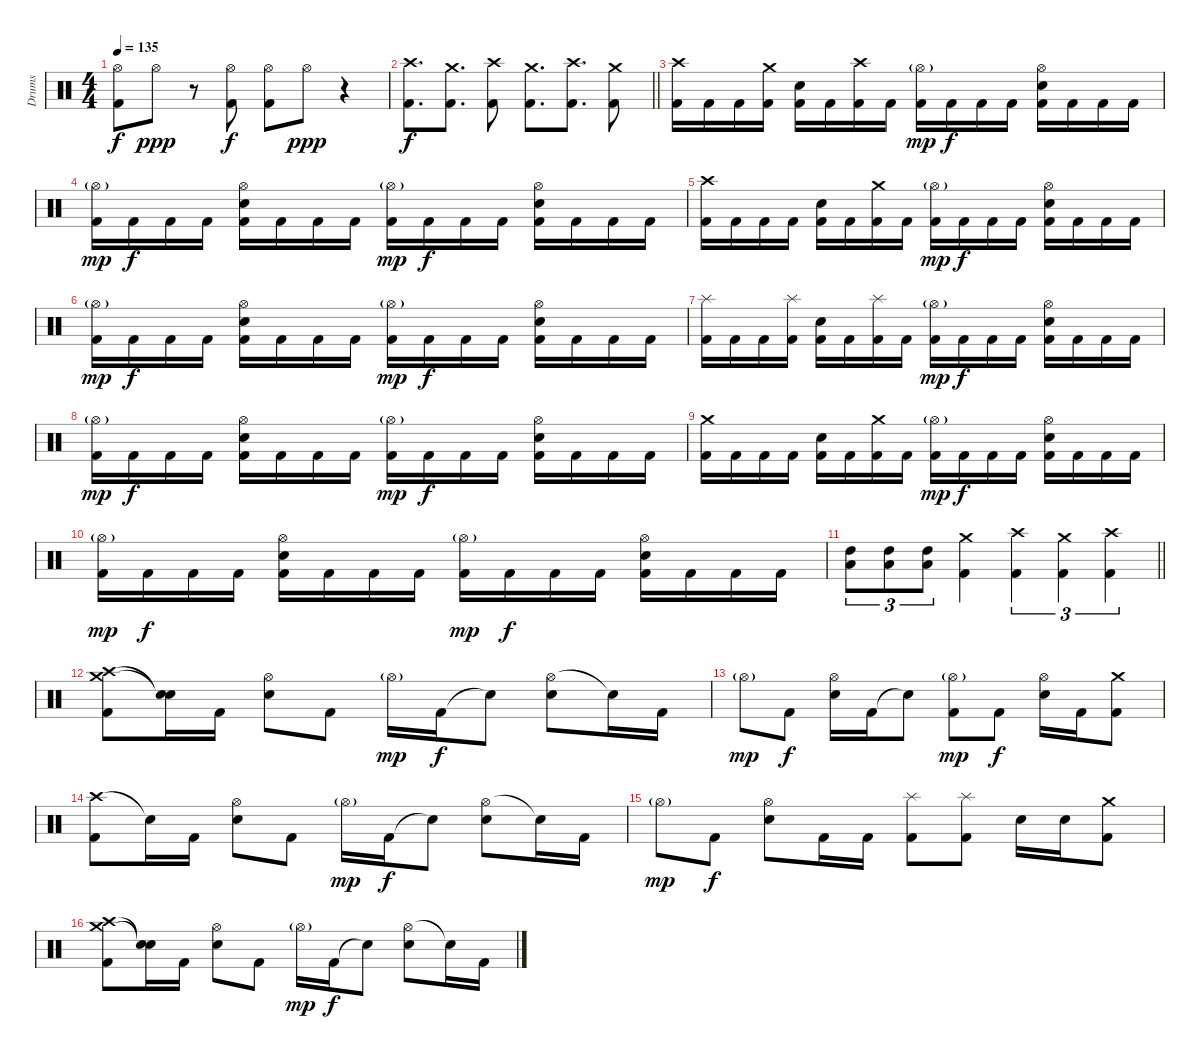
\track ("Drums" "Drums") {instrument percussion}
\staff {score}
\articulation defaults
\ts (4 4)
\tempo 135
\clef neutral
\ks c
("Hi-Hat (open)" "Kick (hit) 2").8{dy f} "Hi-Hat (open)".8{dy ppp} r.8 ("Hi-Hat (open)" "Kick (hit) 2").8{dy f} ("Hi-Hat (open)" "Kick (hit) 2").8 "Hi-Hat (open)".8{dy ppp} r.4 |
\barLineRight lightlight
("Crash high (hit)" "Kick (hit) 2").8{d dy f} ("Crash medium (hit)" "Kick (hit) 2").8{d} ("Crash high (hit)" "Kick (hit) 2").8 ("Crash medium (hit)" "Kick (hit) 2").8{d} ("Crash high (hit)" "Kick (hit) 2").8{d} ("Crash medium (hit)" "Kick (hit) 2").8 |
("Crash high (hit)" "Kick (hit) 2").16 "Kick (hit) 2".16 "Kick (hit) 2".16 ("Crash medium (hit)" "Kick (hit) 2").16 ("Electric Snare (hit)" "Kick (hit) 2").16 "Kick (hit) 2".16 ("Crash high (hit)" "Kick (hit) 2").16 "Kick (hit) 2".16 ("Hi-Hat (open)"{g} "Kick (hit) 2").16{dy mp} "Kick (hit) 2".16{dy f} "Kick (hit) 2".16 "Kick (hit) 2".16 ("Hi-Hat (open)" "Electric Snare (hit)" "Kick (hit) 2").16 "Kick (hit) 2".16 "Kick (hit) 2".16 "Kick (hit) 2".16 |
("Hi-Hat (open)"{g} "Kick (hit) 2").16{dy mp} "Kick (hit) 2".16{dy f} "Kick (hit) 2".16 "Kick (hit) 2".16 ("Hi-Hat (open)" "Electric Snare (hit)" "Kick (hit) 2").16 "Kick (hit) 2".16 "Kick (hit) 2".16 "Kick (hit) 2".16 ("Hi-Hat (open)"{g} "Kick (hit) 2").16{dy mp} "Kick (hit) 2".16{dy f} "Kick (hit) 2".16 "Kick (hit) 2".16 ("Hi-Hat (open)" "Electric Snare (hit)" "Kick (hit) 2").16 "Kick (hit) 2".16 "Kick (hit) 2".16 "Kick (hit) 2".16 |
("Crash high (hit)" "Kick (hit) 2").16 "Kick (hit) 2".16 "Kick (hit) 2".16 "Kick (hit) 2".16 ("Electric Snare (hit)" "Kick (hit) 2").16 "Kick (hit) 2".16 ("Crash medium (hit)" "Kick (hit) 2").16 "Kick (hit) 2".16 ("Hi-Hat (open)"{g} "Kick (hit) 2").16{dy mp} "Kick (hit) 2".16{dy f} "Kick (hit) 2".16 "Kick (hit) 2".16 ("Hi-Hat (open)" "Electric Snare (hit)" "Kick (hit) 2").16 "Kick (hit) 2".16 "Kick (hit) 2".16 "Kick (hit) 2".16 |
("Hi-Hat (open)"{g} "Kick (hit) 2").16{dy mp} "Kick (hit) 2".16{dy f} "Kick (hit) 2".16 "Kick (hit) 2".16 ("Hi-Hat (open)" "Electric Snare (hit)" "Kick (hit) 2").16 "Kick (hit) 2".16 "Kick (hit) 2".16 "Kick (hit) 2".16 ("Hi-Hat (open)"{g} "Kick (hit) 2").16{dy mp} "Kick (hit) 2".16{dy f} "Kick (hit) 2".16 "Kick (hit) 2".16 ("Hi-Hat (open)" "Electric Snare (hit)" "Kick (hit) 2").16 "Kick (hit) 2".16 "Kick (hit) 2".16 "Kick (hit) 2".16 |
("Splash (hit)" "Kick (hit) 2").16 "Kick (hit) 2".16 "Kick (hit) 2".16 ("Splash (hit)" "Kick (hit) 2").16 ("Electric Snare (hit)" "Kick (hit) 2").16 "Kick (hit) 2".16 ("Splash (hit)" "Kick (hit) 2").16 "Kick (hit) 2".16 ("Hi-Hat (open)"{g} "Kick (hit) 2").16{dy mp} "Kick (hit) 2".16{dy f} "Kick (hit) 2".16 "Kick (hit) 2".16 ("Hi-Hat (open)" "Electric Snare (hit)" "Kick (hit) 2").16 "Kick (hit) 2".16 "Kick (hit) 2".16 "Kick (hit) 2".16 |
("Hi-Hat (open)"{g} "Kick (hit) 2").16{dy mp} "Kick (hit) 2".16{dy f} "Kick (hit) 2".16 "Kick (hit) 2".16 ("Hi-Hat (open)" "Electric Snare (hit)" "Kick (hit) 2").16 "Kick (hit) 2".16 "Kick (hit) 2".16 "Kick (hit) 2".16 ("Hi-Hat (open)"{g} "Kick (hit) 2").16{dy mp} "Kick (hit) 2".16{dy f} "Kick (hit) 2".16 "Kick (hit) 2".16 ("Hi-Hat (open)" "Electric Snare (hit)" "Kick (hit) 2").16 "Kick (hit) 2".16 "Kick (hit) 2".16 "Kick (hit) 2".16 |
("Crash medium (hit)" "Kick (hit) 2").16 "Kick (hit) 2".16 "Kick (hit) 2".16 "Kick (hit) 2".16 ("Electric Snare (hit)" "Kick (hit) 2").16 "Kick (hit) 2".16 ("Crash medium (hit)" "Kick (hit) 2").16 "Kick (hit) 2".16 ("Hi-Hat (open)"{g} "Kick (hit) 2").16{dy mp} "Kick (hit) 2".16{dy f} "Kick (hit) 2".16 "Kick (hit) 2".16 ("Hi-Hat (open)" "Electric Snare (hit)" "Kick (hit) 2").16 "Kick (hit) 2".16 "Kick (hit) 2".16 "Kick (hit) 2".16 |
("Hi-Hat (open)"{g} "Kick (hit) 2").16{dy mp} "Kick (hit) 2".16{dy f} "Kick (hit) 2".16 "Kick (hit) 2".16 ("Hi-Hat (open)" "Electric Snare (hit)" "Kick (hit) 2").16 "Kick (hit) 2".16 "Kick (hit) 2".16 "Kick (hit) 2".16 ("Hi-Hat (open)"{g} "Kick (hit) 2").16{dy mp} "Kick (hit) 2".16{dy f} "Kick (hit) 2".16 "Kick (hit) 2".16 ("Hi-Hat (open)" "Electric Snare (hit)" "Kick (hit) 2").16 "Kick (hit) 2".16 "Kick (hit) 2".16 "Kick (hit) 2".16 |
\barLineRight lightlight
("High Tom (hit)" "Low Tom (hit)").8{tu (3 2)} ("High Tom (hit)" "Low Tom (hit)").8{tu (3 2)} ("High Tom (hit)" "Low Tom (hit)").8{tu (3 2)} ("Crash medium (hit)" "Kick (hit) 2").4 ("Crash high (hit)" "Kick (hit) 2").4{tu (3 2)} ("Crash medium (hit)" "Kick (hit) 2").4{tu (3 2)} ("Crash high (hit)" "Kick (hit) 2").4{tu (3 2)} |
("Crash high (hit)" "Crash medium (hit)" "Kick (hit) 2").8 ("Snare (hit)"{t} "Snare (hit)"{t}).16 "Kick (hit) 2".16 ("Hi-Hat (open)" "Electric Snare (hit)").8 "Kick (hit) 2".8 "Hi-Hat (open)"{g}.16{dy mp} "Kick (hit) 2".16{dy f} "Snare (hit)"{t}.8 ("Hi-Hat (open)" "Electric Snare (hit)").8 "Snare (hit)"{t}.16 "Kick (hit) 2".16 |
"Hi-Hat (open)"{g}.8{dy mp} "Kick (hit) 2".8{dy f} ("Hi-Hat (open)" "Electric Snare (hit)").16 "Kick (hit) 2".16 "Snare (hit)"{t}.8 ("Hi-Hat (open)"{g} "Kick (hit) 2").8{dy mp} "Kick (hit) 2".8{dy f} ("Hi-Hat (open)" "Electric Snare (hit)").16 "Kick (hit) 2".16 ("Crash medium (hit)" "Kick (hit) 2").8 |
("Crash high (hit)" "Kick (hit) 2").8 "Snare (hit)"{t}.16 "Kick (hit) 2".16 ("Hi-Hat (open)" "Electric Snare (hit)").8 "Kick (hit) 2".8 "Hi-Hat (open)"{g}.16{dy mp} "Kick (hit) 2".16{dy f} "Snare (hit)"{t}.8 ("Hi-Hat (open)" "Electric Snare (hit)").8 "Snare (hit)"{t}.16 "Kick (hit) 2".16 |
"Hi-Hat (open)"{g}.8{dy mp} "Kick (hit) 2".8{dy f} ("Hi-Hat (open)" "Electric Snare (hit)").8 "Kick (hit) 2".16 "Kick (hit) 2".16 ("Splash (hit)" "Kick (hit) 2").8 ("Splash (hit)" "Kick (hit) 2").8 "Electric Snare (hit)".16 "Electric Snare (hit)".16 ("Crash medium (hit)" "Kick (hit) 2").8 |
("Crash high (hit)" "Crash medium (hit)" "Kick (hit) 2").8 ("Snare (hit)"{t} "Snare (hit)"{t}).16 "Kick (hit) 2".16 ("Hi-Hat (open)" "Electric Snare (hit)").8 "Kick (hit) 2".8 "Hi-Hat (open)"{g}.16{dy mp} "Kick (hit) 2".16{dy f} "Snare (hit)"{t}.8 ("Hi-Hat (open)" "Electric Snare (hit)").8 "Snare (hit)"{t}.16 "Kick (hit) 2".16
